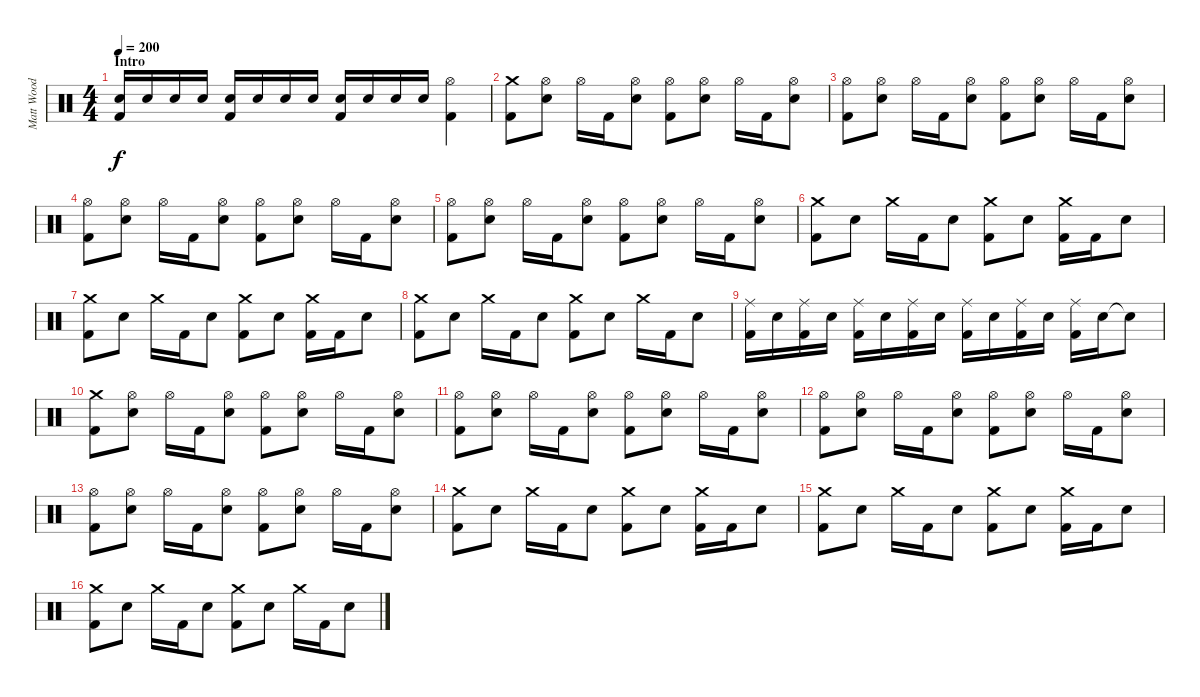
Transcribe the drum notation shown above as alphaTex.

\track ("Matt Wood" "Matt Wood") {instrument percussion}
\staff {score}
\articulation defaults
\ts (4 4)
\section ("" "Intro")
\tempo 200
\clef neutral
\ks c
("Snare (hit) 2" "Kick (hit) 2").16{dy f} "Snare (hit) 2".16 "Snare (hit) 2".16 "Snare (hit) 2".16 ("Snare (hit) 2" "Kick (hit) 2").16 "Snare (hit) 2".16 "Snare (hit) 2".16 "Snare (hit) 2".16 ("Snare (hit) 2" "Kick (hit) 2").16 "Snare (hit) 2".16 "Snare (hit) 2".16 "Snare (hit) 2".16 ("Hi-Hat (open)" "Kick (hit) 2").4 |
("Crash medium (hit)" "Kick (hit) 2").8 ("Hi-Hat (open)" "Snare (hit) 2").8 "Hi-Hat (open)".16 "Kick (hit) 2".16 ("Hi-Hat (open)" "Snare (hit) 2").8 ("Hi-Hat (open)" "Kick (hit) 2").8 ("Hi-Hat (open)" "Snare (hit) 2").8 "Hi-Hat (open)".16 "Kick (hit) 2".16 ("Hi-Hat (open)" "Snare (hit) 2").8 |
("Hi-Hat (open)" "Kick (hit) 2").8 ("Hi-Hat (open)" "Snare (hit) 2").8 "Hi-Hat (open)".16 "Kick (hit) 2".16 ("Hi-Hat (open)" "Snare (hit) 2").8 ("Hi-Hat (open)" "Kick (hit) 2").8 ("Hi-Hat (open)" "Snare (hit) 2").8 "Hi-Hat (open)".16 "Kick (hit) 2".16 ("Hi-Hat (open)" "Snare (hit) 2").8 |
("Hi-Hat (open)" "Kick (hit) 2").8 ("Hi-Hat (open)" "Snare (hit) 2").8 "Hi-Hat (open)".16 "Kick (hit) 2".16 ("Hi-Hat (open)" "Snare (hit) 2").8 ("Hi-Hat (open)" "Kick (hit) 2").8 ("Hi-Hat (open)" "Snare (hit) 2").8 "Hi-Hat (open)".16 "Kick (hit) 2".16 ("Hi-Hat (open)" "Snare (hit) 2").8 |
("Hi-Hat (open)" "Kick (hit) 2").8 ("Hi-Hat (open)" "Snare (hit) 2").8 "Hi-Hat (open)".16 "Kick (hit) 2".16 ("Hi-Hat (open)" "Snare (hit) 2").8 ("Hi-Hat (open)" "Kick (hit) 2").8 ("Hi-Hat (open)" "Snare (hit) 2").8 "Hi-Hat (open)".16 "Kick (hit) 2".16 ("Hi-Hat (open)" "Snare (hit) 2").8 |
("Crash medium (hit)" "Kick (hit) 2").8 "Snare (hit) 2".8 "Crash medium (hit)".16 "Kick (hit) 2".16 "Snare (hit) 2".8 ("Crash medium (hit)" "Kick (hit) 2").8 "Snare (hit) 2".8 ("Crash medium (hit)" "Kick (hit) 2").16 "Kick (hit) 2".16 "Snare (hit) 2".8 |
("Crash medium (hit)" "Kick (hit) 2").8 "Snare (hit) 2".8 "Crash medium (hit)".16 "Kick (hit) 2".16 "Snare (hit) 2".8 ("Crash medium (hit)" "Kick (hit) 2").8 "Snare (hit) 2".8 ("Crash medium (hit)" "Kick (hit) 2").16 "Kick (hit) 2".16 "Snare (hit) 2".8 |
("Crash medium (hit)" "Kick (hit) 2").8 "Snare (hit) 2".8 "Crash medium (hit)".16 "Kick (hit) 2".16 "Snare (hit) 2".8 ("Crash medium (hit)" "Kick (hit) 2").8 "Snare (hit) 2".8 "Crash medium (hit)".16 "Kick (hit) 2".16 "Snare (hit) 2".8 |
("Ride (middle)" "Kick (hit) 2").16 "Snare (hit) 2".16 ("Ride (middle)" "Kick (hit) 2").16 "Snare (hit) 2".16 ("Ride (middle)" "Kick (hit) 2").16 "Snare (hit) 2".16 ("Ride (middle)" "Kick (hit) 2").16 "Snare (hit) 2".16 ("Ride (middle)" "Kick (hit) 2").16 "Snare (hit) 2".16 ("Ride (middle)" "Kick (hit) 2").16 "Snare (hit) 2".16 ("Ride (middle)" "Kick (hit) 2").16 "Snare (hit) 2".16 "Snare (hit)"{t}.8 |
("Crash medium (hit)" "Kick (hit) 2").8 ("Hi-Hat (open)" "Snare (hit) 2").8 "Hi-Hat (open)".16 "Kick (hit) 2".16 ("Hi-Hat (open)" "Snare (hit) 2").8 ("Hi-Hat (open)" "Kick (hit) 2").8 ("Hi-Hat (open)" "Snare (hit) 2").8 "Hi-Hat (open)".16 "Kick (hit) 2".16 ("Hi-Hat (open)" "Snare (hit) 2").8 |
("Hi-Hat (open)" "Kick (hit) 2").8 ("Hi-Hat (open)" "Snare (hit) 2").8 "Hi-Hat (open)".16 "Kick (hit) 2".16 ("Hi-Hat (open)" "Snare (hit) 2").8 ("Hi-Hat (open)" "Kick (hit) 2").8 ("Hi-Hat (open)" "Snare (hit) 2").8 "Hi-Hat (open)".16 "Kick (hit) 2".16 ("Hi-Hat (open)" "Snare (hit) 2").8 |
("Hi-Hat (open)" "Kick (hit) 2").8 ("Hi-Hat (open)" "Snare (hit) 2").8 "Hi-Hat (open)".16 "Kick (hit) 2".16 ("Hi-Hat (open)" "Snare (hit) 2").8 ("Hi-Hat (open)" "Kick (hit) 2").8 ("Hi-Hat (open)" "Snare (hit) 2").8 "Hi-Hat (open)".16 "Kick (hit) 2".16 ("Hi-Hat (open)" "Snare (hit) 2").8 |
("Hi-Hat (open)" "Kick (hit) 2").8 ("Hi-Hat (open)" "Snare (hit) 2").8 "Hi-Hat (open)".16 "Kick (hit) 2".16 ("Hi-Hat (open)" "Snare (hit) 2").8 ("Hi-Hat (open)" "Kick (hit) 2").8 ("Hi-Hat (open)" "Snare (hit) 2").8 "Hi-Hat (open)".16 "Kick (hit) 2".16 ("Hi-Hat (open)" "Snare (hit) 2").8 |
("Crash medium (hit)" "Kick (hit) 2").8 "Snare (hit) 2".8 "Crash medium (hit)".16 "Kick (hit) 2".16 "Snare (hit) 2".8 ("Crash medium (hit)" "Kick (hit) 2").8 "Snare (hit) 2".8 ("Crash medium (hit)" "Kick (hit) 2").16 "Kick (hit) 2".16 "Snare (hit) 2".8 |
("Crash medium (hit)" "Kick (hit) 2").8 "Snare (hit) 2".8 "Crash medium (hit)".16 "Kick (hit) 2".16 "Snare (hit) 2".8 ("Crash medium (hit)" "Kick (hit) 2").8 "Snare (hit) 2".8 ("Crash medium (hit)" "Kick (hit) 2").16 "Kick (hit) 2".16 "Snare (hit) 2".8 |
("Crash medium (hit)" "Kick (hit) 2").8 "Snare (hit) 2".8 "Crash medium (hit)".16 "Kick (hit) 2".16 "Snare (hit) 2".8 ("Crash medium (hit)" "Kick (hit) 2").8 "Snare (hit) 2".8 "Crash medium (hit)".16 "Kick (hit) 2".16 "Snare (hit) 2".8
